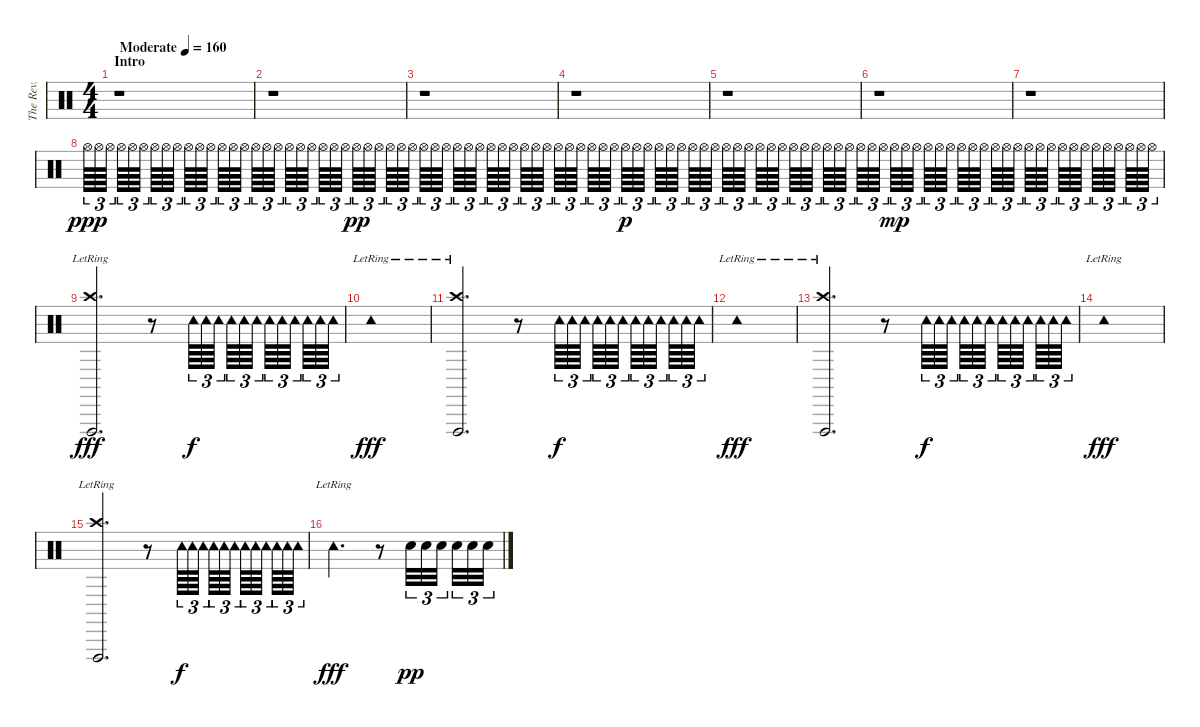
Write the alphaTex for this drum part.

\track ("The Rev." "The Rev.") {instrument percussion}
\staff {score}
\articulation defaults
\ts (4 4)
\section ("" "Intro")
\tempo (160 "Moderate")
\clef neutral
\ks c
r.1{dy ppp} |
r.1 |
r.1 |
r.1 |
r.1 |
r.1 |
r.1 |
"Hi-Hat (open)".64{tu (3 2)} "Hi-Hat (open)".64{tu (3 2)} "Hi-Hat (open)".64{tu (3 2)} "Hi-Hat (open)".64{tu (3 2)} "Hi-Hat (open)".64{tu (3 2)} "Hi-Hat (open)".64{tu (3 2)} "Hi-Hat (open)".64{tu (3 2)} "Hi-Hat (open)".64{tu (3 2)} "Hi-Hat (open)".64{tu (3 2)} "Hi-Hat (open)".64{tu (3 2)} "Hi-Hat (open)".64{tu (3 2)} "Hi-Hat (open)".64{tu (3 2)} "Hi-Hat (open)".64{tu (3 2)} "Hi-Hat (open)".64{tu (3 2)} "Hi-Hat (open)".64{tu (3 2)} "Hi-Hat (open)".64{tu (3 2)} "Hi-Hat (open)".64{tu (3 2)} "Hi-Hat (open)".64{tu (3 2)} "Hi-Hat (open)".64{tu (3 2)} "Hi-Hat (open)".64{tu (3 2)} "Hi-Hat (open)".64{tu (3 2)} "Hi-Hat (open)".64{tu (3 2)} "Hi-Hat (open)".64{tu (3 2)} "Hi-Hat (open)".64{tu (3 2)} "Hi-Hat (open)".64{tu (3 2) dy pp} "Hi-Hat (open)".64{tu (3 2)} "Hi-Hat (open)".64{tu (3 2)} "Hi-Hat (open)".64{tu (3 2)} "Hi-Hat (open)".64{tu (3 2)} "Hi-Hat (open)".64{tu (3 2)} "Hi-Hat (open)".64{tu (3 2)} "Hi-Hat (open)".64{tu (3 2)} "Hi-Hat (open)".64{tu (3 2)} "Hi-Hat (open)".64{tu (3 2)} "Hi-Hat (open)".64{tu (3 2)} "Hi-Hat (open)".64{tu (3 2)} "Hi-Hat (open)".64{tu (3 2)} "Hi-Hat (open)".64{tu (3 2)} "Hi-Hat (open)".64{tu (3 2)} "Hi-Hat (open)".64{tu (3 2)} "Hi-Hat (open)".64{tu (3 2)} "Hi-Hat (open)".64{tu (3 2)} "Hi-Hat (open)".64{tu (3 2)} "Hi-Hat (open)".64{tu (3 2)} "Hi-Hat (open)".64{tu (3 2)} "Hi-Hat (open)".64{tu (3 2)} "Hi-Hat (open)".64{tu (3 2)} "Hi-Hat (open)".64{tu (3 2)} "Hi-Hat (open)".64{tu (3 2) dy p} "Hi-Hat (open)".64{tu (3 2)} "Hi-Hat (open)".64{tu (3 2)} "Hi-Hat (open)".64{tu (3 2)} "Hi-Hat (open)".64{tu (3 2)} "Hi-Hat (open)".64{tu (3 2)} "Hi-Hat (open)".64{tu (3 2)} "Hi-Hat (open)".64{tu (3 2)} "Hi-Hat (open)".64{tu (3 2)} "Hi-Hat (open)".64{tu (3 2)} "Hi-Hat (open)".64{tu (3 2)} "Hi-Hat (open)".64{tu (3 2)} "Hi-Hat (open)".64{tu (3 2)} "Hi-Hat (open)".64{tu (3 2)} "Hi-Hat (open)".64{tu (3 2)} "Hi-Hat (open)".64{tu (3 2)} "Hi-Hat (open)".64{tu (3 2)} "Hi-Hat (open)".64{tu (3 2)} "Hi-Hat (open)".64{tu (3 2)} "Hi-Hat (open)".64{tu (3 2)} "Hi-Hat (open)".64{tu (3 2)} "Hi-Hat (open)".64{tu (3 2)} "Hi-Hat (open)".64{tu (3 2)} "Hi-Hat (open)".64{tu (3 2)} "Hi-Hat (open)".64{tu (3 2) dy mp} "Hi-Hat (open)".64{tu (3 2)} "Hi-Hat (open)".64{tu (3 2)} "Hi-Hat (open)".64{tu (3 2)} "Hi-Hat (open)".64{tu (3 2)} "Hi-Hat (open)".64{tu (3 2)} "Hi-Hat (open)".64{tu (3 2)} "Hi-Hat (open)".64{tu (3 2)} "Hi-Hat (open)".64{tu (3 2)} "Hi-Hat (open)".64{tu (3 2)} "Hi-Hat (open)".64{tu (3 2)} "Hi-Hat (open)".64{tu (3 2)} "Hi-Hat (open)".64{tu (3 2)} "Hi-Hat (open)".64{tu (3 2)} "Hi-Hat (open)".64{tu (3 2)} "Hi-Hat (open)".64{tu (3 2)} "Hi-Hat (open)".64{tu (3 2)} "Hi-Hat (open)".64{tu (3 2)} "Hi-Hat (open)".64{tu (3 2)} "Hi-Hat (open)".64{tu (3 2)} "Hi-Hat (open)".64{tu (3 2)} "Hi-Hat (open)".64{tu (3 2)} "Hi-Hat (open)".64{tu (3 2)} "Hi-Hat (open)".64{tu (3 2)} |
("Vibraslap (hit)"{lr} "Crash high (hit)"{lr}).2{d dy fff} r.8 "Tambourine (hit)".64{tu (3 2) dy f} "Tambourine (hit)".64{tu (3 2)} "Tambourine (hit)".64{tu (3 2)} "Tambourine (hit)".64{tu (3 2)} "Tambourine (hit)".64{tu (3 2)} "Tambourine (hit)".64{tu (3 2)} "Tambourine (hit)".64{tu (3 2)} "Tambourine (hit)".64{tu (3 2)} "Tambourine (hit)".64{tu (3 2)} "Tambourine (hit)".64{tu (3 2)} "Tambourine (hit)".64{tu (3 2)} "Tambourine (hit)".64{tu (3 2)} |
"Tambourine (hit)"{lr}.1{dy fff} |
("Vibraslap (hit)"{lr} "Crash high (hit)"{lr}).2{d} r.8 "Tambourine (hit)".64{tu (3 2) dy f} "Tambourine (hit)".64{tu (3 2)} "Tambourine (hit)".64{tu (3 2)} "Tambourine (hit)".64{tu (3 2)} "Tambourine (hit)".64{tu (3 2)} "Tambourine (hit)".64{tu (3 2)} "Tambourine (hit)".64{tu (3 2)} "Tambourine (hit)".64{tu (3 2)} "Tambourine (hit)".64{tu (3 2)} "Tambourine (hit)".64{tu (3 2)} "Tambourine (hit)".64{tu (3 2)} "Tambourine (hit)".64{tu (3 2)} |
"Tambourine (hit)"{lr}.1{dy fff} |
("Vibraslap (hit)"{lr} "Crash high (hit)"{lr}).2{d} r.8 "Tambourine (hit)".64{tu (3 2) dy f} "Tambourine (hit)".64{tu (3 2)} "Tambourine (hit)".64{tu (3 2)} "Tambourine (hit)".64{tu (3 2)} "Tambourine (hit)".64{tu (3 2)} "Tambourine (hit)".64{tu (3 2)} "Tambourine (hit)".64{tu (3 2)} "Tambourine (hit)".64{tu (3 2)} "Tambourine (hit)".64{tu (3 2)} "Tambourine (hit)".64{tu (3 2)} "Tambourine (hit)".64{tu (3 2)} "Tambourine (hit)".64{tu (3 2)} |
"Tambourine (hit)"{lr}.1{dy fff} |
("Vibraslap (hit)"{lr} "Crash high (hit)"{lr}).2{d} r.8 "Tambourine (hit)".64{tu (3 2) dy f} "Tambourine (hit)".64{tu (3 2)} "Tambourine (hit)".64{tu (3 2)} "Tambourine (hit)".64{tu (3 2)} "Tambourine (hit)".64{tu (3 2)} "Tambourine (hit)".64{tu (3 2)} "Tambourine (hit)".64{tu (3 2)} "Tambourine (hit)".64{tu (3 2)} "Tambourine (hit)".64{tu (3 2)} "Tambourine (hit)".64{tu (3 2)} "Tambourine (hit)".64{tu (3 2)} "Tambourine (hit)".64{tu (3 2)} |
"Tambourine (hit)"{lr}.2{d dy fff} r.8 "Electric Snare (hit)".32{tu (3 2) dy pp} "Electric Snare (hit)".32{tu (3 2)} "Electric Snare (hit)".32{tu (3 2)} "Electric Snare (hit)".32{tu (3 2)} "Electric Snare (hit)".32{tu (3 2)} "Electric Snare (hit)".32{tu (3 2)}
